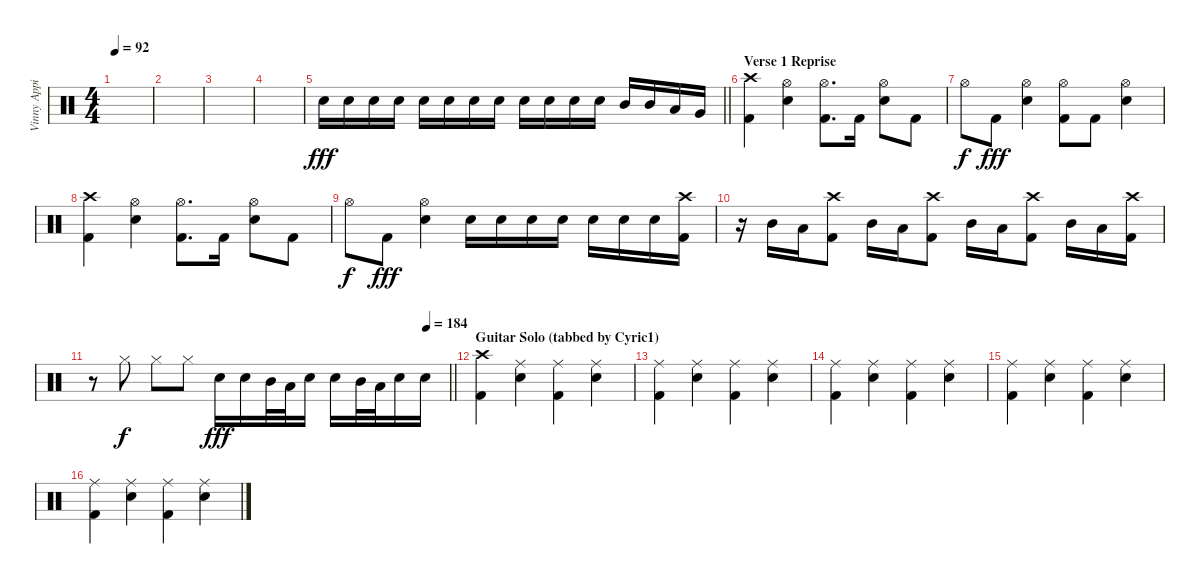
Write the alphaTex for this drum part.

\track ("Vinny Appice" "Vinny Appi") {instrument percussion}
\staff {score}
\articulation defaults
\ts (4 4)
\tempo 92
\clef neutral
\ks c
|
|
|
|
\barLineRight lightlight "Snare (hit) 2".16{dy fff} "Snare (hit) 2".16 "Snare (hit) 2".16 "Snare (hit) 2".16 "Snare (hit) 2".16 "Snare (hit) 2".16 "Snare (hit) 2".16 "Snare (hit) 2".16 "Snare (hit) 2".16 "Snare (hit) 2".16 "Snare (hit) 2".16 "Snare (hit) 2".16 "Mid Tom (hit)".16 "Mid Tom (hit)".16 "Low Tom (hit)".16 "Very Low Tom (hit)".16
|
\section ("" "Verse 1 Reprise")
("Crash high (hit)" "Kick (hit) 2").4 ("Hi-Hat (open)" "Snare (hit) 2").4 ("Hi-Hat (open)" "Kick (hit) 2").8{d} "Kick (hit) 2".16 ("Hi-Hat (open)" "Snare (hit) 2").8 "Kick (hit) 2".8 |
"Hi-Hat (open)".8{dy f} "Kick (hit) 2".8{dy fff} ("Hi-Hat (open)" "Snare (hit) 2").4 ("Hi-Hat (open)" "Kick (hit) 2").8 "Kick (hit) 2".8 ("Hi-Hat (open)" "Snare (hit) 2").4 |
("Crash high (hit)" "Kick (hit) 2").4 ("Hi-Hat (open)" "Snare (hit) 2").4 ("Hi-Hat (open)" "Kick (hit) 2").8{d} "Kick (hit) 2".16 ("Hi-Hat (open)" "Snare (hit) 2").8 "Kick (hit) 2".8 |
"Hi-Hat (open)".8{dy f} "Kick (hit) 2".8{dy fff} ("Hi-Hat (open)" "Snare (hit) 2").4 "Snare (hit) 2".16 "Snare (hit) 2".16 "Snare (hit) 2".16 "Snare (hit) 2".16 "Snare (hit) 2".16 "Snare (hit) 2".16 "Snare (hit) 2".16 ("Crash high (hit)" "Kick (hit) 2").16 |
r.16 "Mid Tom (hit)".16 "Low Tom (hit)".16 ("Crash high (hit)" "Kick (hit) 2").8 "Mid Tom (hit)".16 "Low Tom (hit)".16 ("Crash high (hit)" "Kick (hit) 2").8 "Mid Tom (hit)".16 "Low Tom (hit)".16 ("Crash high (hit)" "Kick (hit) 2").8 "Mid Tom (hit)".16 "Low Tom (hit)".16 ("Crash high (hit)" "Kick (hit) 2").16 |
\tempo (184 0.9375)
\barLineRight lightlight
r.8 "Hi-Hat (closed)".8{dy f} "Hi-Hat (closed)".8 "Hi-Hat (closed)".8 "Snare (hit) 2".16{dy fff} "Snare (hit) 2".16 "Mid Tom (hit)".32 "Low Tom (hit)".32 "Snare (hit) 2".16 "Snare (hit) 2".16 "Mid Tom (hit)".32 "Low Tom (hit)".32 "Snare (hit) 2".16 "Snare (hit) 2".16 |
\section ("" "Guitar Solo (tabbed by Cyric1)")
("Crash high (hit)" "Kick (hit) 2").4 ("Ride (middle)" "Snare (hit) 2").4 ("Ride (middle)" "Kick (hit) 2").4 ("Ride (middle)" "Snare (hit) 2").4 |
("Ride (middle)" "Kick (hit) 2").4 ("Ride (middle)" "Snare (hit) 2").4 ("Ride (middle)" "Kick (hit) 2").4 ("Ride (middle)" "Snare (hit) 2").4 |
("Ride (middle)" "Kick (hit) 2").4 ("Ride (middle)" "Snare (hit) 2").4 ("Ride (middle)" "Kick (hit) 2").4 ("Ride (middle)" "Snare (hit) 2").4 |
("Ride (middle)" "Kick (hit) 2").4 ("Ride (middle)" "Snare (hit) 2").4 ("Ride (middle)" "Kick (hit) 2").4 ("Ride (middle)" "Snare (hit) 2").4 |
("Ride (middle)" "Kick (hit) 2").4 ("Ride (middle)" "Snare (hit) 2").4 ("Ride (middle)" "Kick (hit) 2").4 ("Ride (middle)" "Snare (hit) 2").4
